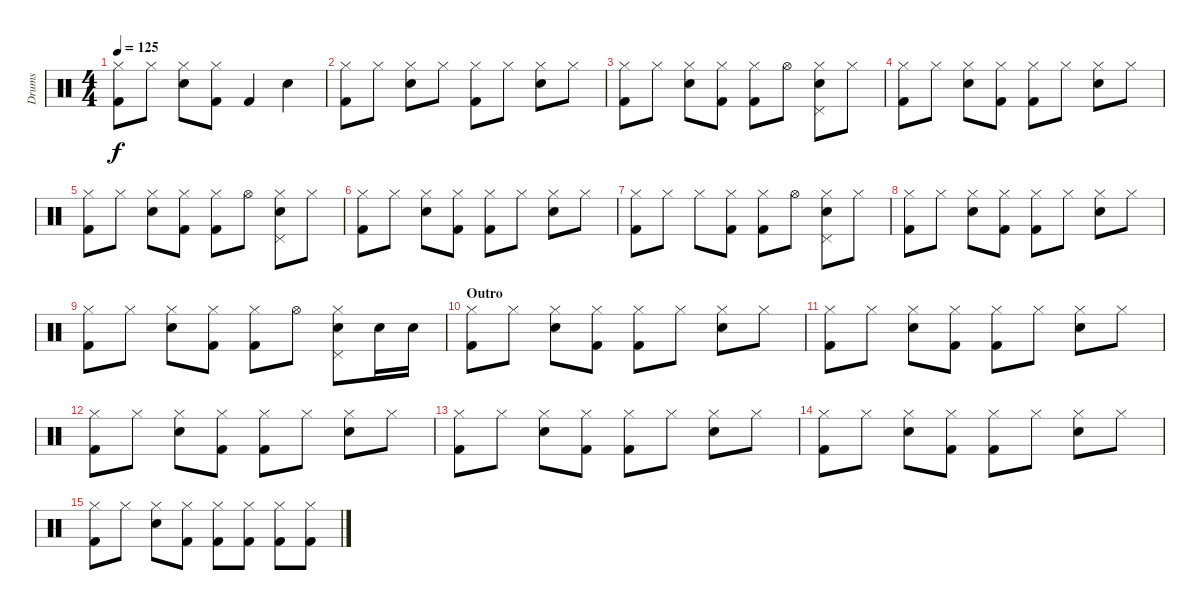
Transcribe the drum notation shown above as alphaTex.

\track ("Drums" "Drums") {instrument percussion}
\staff {score}
\articulation defaults
\ts (4 4)
\tempo 125
\clef neutral
\ks c
("Hi-Hat (closed)" "Kick (hit) 2").8{dy f} "Hi-Hat (closed)".8 ("Hi-Hat (closed)" "Snare (hit) 2").8 ("Hi-Hat (closed)" "Kick (hit) 2").8 "Kick (hit) 2".4 "Snare (hit) 2".4 |
("Hi-Hat (closed)" "Kick (hit) 2").8 "Hi-Hat (closed)".8 ("Hi-Hat (closed)" "Snare (hit) 2").8 "Hi-Hat (closed)".8 ("Hi-Hat (closed)" "Kick (hit) 2").8 "Hi-Hat (closed)".8 ("Hi-Hat (closed)" "Snare (hit) 2").8 "Hi-Hat (closed)".8 |
("Hi-Hat (closed)" "Kick (hit) 2").8 "Hi-Hat (closed)".8 ("Hi-Hat (closed)" "Snare (hit) 2").8 ("Hi-Hat (closed)" "Kick (hit) 2").8 ("Hi-Hat (closed)" "Kick (hit) 2").8 "Hi-Hat (open)".8 ("Hi-Hat (closed)" "Pedal Hi-Hat (hit)" "Snare (hit) 2").8 "Hi-Hat (closed)".8 |
("Hi-Hat (closed)" "Kick (hit) 2").8 "Hi-Hat (closed)".8 ("Hi-Hat (closed)" "Snare (hit) 2").8 ("Hi-Hat (closed)" "Kick (hit) 2").8 ("Hi-Hat (closed)" "Kick (hit) 2").8 "Hi-Hat (closed)".8 ("Hi-Hat (closed)" "Snare (hit) 2").8 "Hi-Hat (closed)".8 |
("Hi-Hat (closed)" "Kick (hit) 2").8 "Hi-Hat (closed)".8 ("Hi-Hat (closed)" "Snare (hit) 2").8 ("Hi-Hat (closed)" "Kick (hit) 2").8 ("Hi-Hat (closed)" "Kick (hit) 2").8 "Hi-Hat (open)".8 ("Hi-Hat (closed)" "Pedal Hi-Hat (hit)" "Snare (hit) 2").8 "Hi-Hat (closed)".8 |
("Hi-Hat (closed)" "Kick (hit) 2").8 "Hi-Hat (closed)".8 ("Hi-Hat (closed)" "Snare (hit) 2").8 ("Hi-Hat (closed)" "Kick (hit) 2").8 ("Hi-Hat (closed)" "Kick (hit) 2").8 "Hi-Hat (closed)".8 ("Hi-Hat (closed)" "Snare (hit) 2").8 "Hi-Hat (closed)".8 |
("Hi-Hat (closed)" "Kick (hit) 2").8 "Hi-Hat (closed)".8 "Hi-Hat (closed)".8 ("Hi-Hat (closed)" "Kick (hit) 2").8 ("Hi-Hat (closed)" "Kick (hit) 2").8 "Hi-Hat (open)".8 ("Hi-Hat (closed)" "Pedal Hi-Hat (hit)" "Snare (hit) 2").8 "Hi-Hat (closed)".8 |
("Hi-Hat (closed)" "Kick (hit) 2").8 "Hi-Hat (closed)".8 ("Hi-Hat (closed)" "Snare (hit) 2").8 ("Hi-Hat (closed)" "Kick (hit) 2").8 ("Hi-Hat (closed)" "Kick (hit) 2").8 "Hi-Hat (closed)".8 ("Hi-Hat (closed)" "Snare (hit) 2").8 "Hi-Hat (closed)".8 |
("Hi-Hat (closed)" "Kick (hit) 2").8 "Hi-Hat (closed)".8 ("Hi-Hat (closed)" "Snare (hit) 2").8 ("Hi-Hat (closed)" "Kick (hit) 2").8 ("Hi-Hat (closed)" "Kick (hit) 2").8 "Hi-Hat (open)".8 ("Hi-Hat (closed)" "Pedal Hi-Hat (hit)" "Snare (hit) 2").8 "Snare (hit) 2".16 "Snare (hit) 2".16 |
\section ("" "Outro")
("Hi-Hat (closed)" "Kick (hit) 2").8 "Hi-Hat (closed)".8 ("Hi-Hat (closed)" "Snare (hit) 2").8 ("Hi-Hat (closed)" "Kick (hit) 2").8 ("Hi-Hat (closed)" "Kick (hit) 2").8 "Hi-Hat (closed)".8 ("Hi-Hat (closed)" "Snare (hit) 2").8 "Hi-Hat (closed)".8 |
("Hi-Hat (closed)" "Kick (hit) 2").8 "Hi-Hat (closed)".8 ("Hi-Hat (closed)" "Snare (hit) 2").8 ("Hi-Hat (closed)" "Kick (hit) 2").8 ("Hi-Hat (closed)" "Kick (hit) 2").8 "Hi-Hat (closed)".8 ("Hi-Hat (closed)" "Snare (hit) 2").8 "Hi-Hat (closed)".8 |
("Hi-Hat (closed)" "Kick (hit) 2").8 "Hi-Hat (closed)".8 ("Hi-Hat (closed)" "Snare (hit) 2").8 ("Hi-Hat (closed)" "Kick (hit) 2").8 ("Hi-Hat (closed)" "Kick (hit) 2").8 "Hi-Hat (closed)".8 ("Hi-Hat (closed)" "Snare (hit) 2").8 "Hi-Hat (closed)".8 |
("Hi-Hat (closed)" "Kick (hit) 2").8 "Hi-Hat (closed)".8 ("Hi-Hat (closed)" "Snare (hit) 2").8 ("Hi-Hat (closed)" "Kick (hit) 2").8 ("Hi-Hat (closed)" "Kick (hit) 2").8 "Hi-Hat (closed)".8 ("Hi-Hat (closed)" "Snare (hit) 2").8 "Hi-Hat (closed)".8 |
("Hi-Hat (closed)" "Kick (hit) 2").8 "Hi-Hat (closed)".8 ("Hi-Hat (closed)" "Snare (hit) 2").8 ("Hi-Hat (closed)" "Kick (hit) 2").8 ("Hi-Hat (closed)" "Kick (hit) 2").8 "Hi-Hat (closed)".8 ("Hi-Hat (closed)" "Snare (hit) 2").8 "Hi-Hat (closed)".8 |
("Hi-Hat (closed)" "Kick (hit) 2").8 "Hi-Hat (closed)".8 ("Hi-Hat (closed)" "Snare (hit) 2").8 ("Hi-Hat (closed)" "Kick (hit) 2").8 ("Hi-Hat (closed)" "Kick (hit) 2").8 ("Hi-Hat (closed)" "Kick (hit) 2").8 ("Hi-Hat (closed)" "Kick (hit) 2").8 ("Hi-Hat (closed)" "Kick (hit) 2").8
